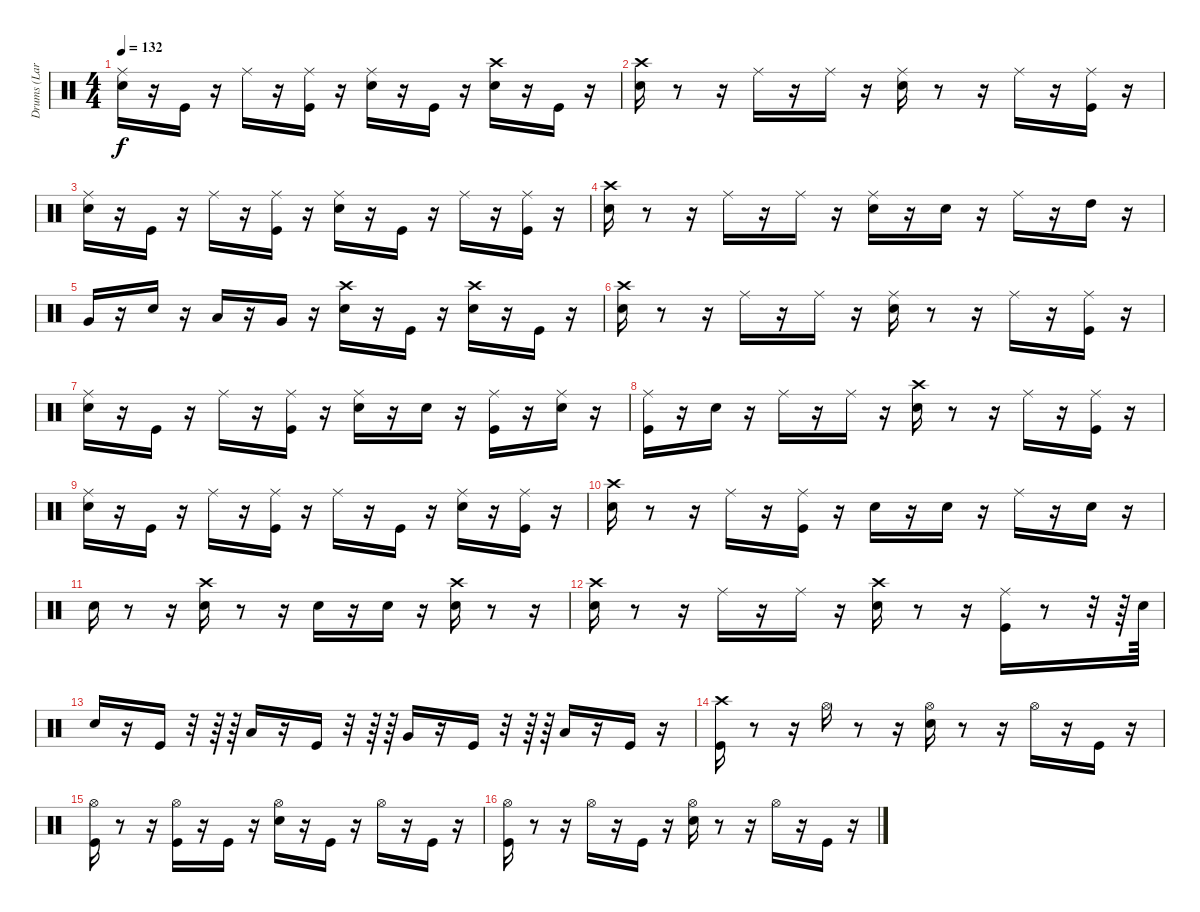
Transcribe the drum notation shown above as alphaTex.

\track ("Drums (Lars)" "Drums (Lar") {instrument percussion}
\staff {score}
\articulation defaults
\ts (4 4)
\tempo 132
\clef neutral
\ks c
("Ride (middle)" "Snare (hit) 2").16{dy f} r.16 "Kick (hit)".16 r.16 "Ride (middle)".16 r.16 ("Ride (middle)" "Kick (hit)").16 r.16 ("Ride (middle)" "Snare (hit) 2").16 r.16 "Kick (hit)".16 r.16 ("Snare (hit) 2" "Crash high (hit)").16 r.16 "Kick (hit)".16 r.16 |
("Crash high (hit)" "Snare (hit) 2").16 r.8 r.16 "Ride (middle)".16 r.16 "Ride (middle)".16 r.16 ("Ride (middle)" "Snare (hit) 2").16 r.8 r.16 "Ride (middle)".16 r.16 ("Ride (middle)" "Kick (hit)").16 r.16 |
("Ride (middle)" "Snare (hit) 2").16 r.16 "Kick (hit)".16 r.16 "Ride (middle)".16 r.16 ("Ride (middle)" "Kick (hit)").16 r.16 ("Ride (middle)" "Snare (hit) 2").16 r.16 "Kick (hit)".16 r.16 "Ride (middle)".16 r.16 ("Ride (middle)" "Kick (hit)").16 r.16 |
("Snare (hit) 2" "Crash high (hit)").16 r.8 r.16 "Ride (middle)".16 r.16 "Ride (middle)".16 r.16 ("Ride (middle)" "Snare (hit) 2").16 r.16 "Snare (hit) 2".16 r.16 "Ride (middle)".16 r.16 "High Tom (hit)".16 r.16 |
"Very Low Tom (hit)".16 r.16 "Electric Snare (hit)".16 r.16 "Low Tom (hit)".16 r.16 "Very Low Tom (hit)".16 r.16 ("Snare (hit) 2" "Crash high (hit)").16 r.16 "Kick (hit)".16 r.16 ("Snare (hit) 2" "Crash high (hit)").16 r.16 "Kick (hit)".16 r.16 |
("Snare (hit) 2" "Crash high (hit)").16 r.8 r.16 "Ride (middle)".16 r.16 "Ride (middle)".16 r.16 ("Ride (middle)" "Snare (hit) 2").16 r.8 r.16 "Ride (middle)".16 r.16 ("Ride (middle)" "Kick (hit)").16 r.16 |
("Ride (middle)" "Snare (hit) 2").16 r.16 "Kick (hit)".16 r.16 "Ride (middle)".16 r.16 ("Ride (middle)" "Kick (hit)").16 r.16 ("Ride (middle)" "Snare (hit) 2").16 r.16 "Snare (hit) 2".16 r.16 ("Ride (middle)" "Kick (hit)").16 r.16 ("Ride (middle)" "Snare (hit) 2").16 r.16 |
("Kick (hit)" "Ride (middle)").16 r.16 "Snare (hit) 2".16 r.16 "Ride (middle)".16 r.16 "Ride (middle)".16 r.16 ("Snare (hit) 2" "Crash high (hit)").16 r.8 r.16 "Ride (middle)".16 r.16 ("Ride (middle)" "Kick (hit)").16 r.16 |
("Ride (middle)" "Snare (hit) 2").16 r.16 "Kick (hit)".16 r.16 "Ride (middle)".16 r.16 ("Ride (middle)" "Kick (hit)").16 r.16 "Ride (middle)".16 r.16 "Kick (hit)".16 r.16 ("Ride (middle)" "Snare (hit) 2").16 r.16 ("Ride (middle)" "Kick (hit)").16 r.16 |
("Crash high (hit)" "Snare (hit) 2").16 r.8 r.16 "Ride (middle)".16 r.16 ("Ride (middle)" "Kick (hit)").16 r.16 "Snare (hit) 2".16 r.16 "Snare (hit) 2".16 r.16 "Ride (middle)".16 r.16 "Snare (hit) 2".16 r.16 |
"Snare (hit) 2".16 r.8 r.16 ("Snare (hit) 2" "Crash high (hit)").16 r.8 r.16 "Snare (hit) 2".16 r.16 "Snare (hit) 2".16 r.16 ("Snare (hit) 2" "Crash high (hit)").16 r.8 r.16 |
("Snare (hit) 2" "Crash high (hit)").16 r.8 r.16 "Ride (middle)".16 r.16 "Ride (middle)".16 r.16 ("Snare (hit) 2" "Crash high (hit)").16 r.8 r.16 ("Kick (hit)" "Ride (middle)").16 r.8 r.32 r.64 "Snare (hit) 2".64 |
"Snare (hit) 2".16 r.16 "Kick (hit)".16 r.32 r.64 r.64 "Low Tom (hit)".16 r.16 "Kick (hit)".16 r.32 r.64 r.64 "Very Low Tom (hit)".16 r.16 "Kick (hit)".16 r.32 r.64 r.64 "Low Floor Tom (hit)".16 r.16 "Kick (hit)".16 r.16 |
("Kick (hit)" "Crash high (hit)").16 r.8 r.16 "Hi-Hat (open)".16 r.8 r.16 ("Hi-Hat (open)" "Snare (hit) 2").16 r.8 r.16 "Hi-Hat (open)".16 r.16 "Kick (hit)".16 r.16 |
("Kick (hit)" "Hi-Hat (open)").16 r.8 r.16 ("Hi-Hat (open)" "Kick (hit)").16 r.16 "Kick (hit)".16 r.16 ("Hi-Hat (open)" "Snare (hit) 2").16 r.16 "Kick (hit)".16 r.16 "Hi-Hat (open)".16 r.16 "Kick (hit)".16 r.16 |
("Hi-Hat (open)" "Kick (hit)").16 r.8 r.16 "Hi-Hat (open)".16 r.16 "Kick (hit)".16 r.16 ("Hi-Hat (open)" "Snare (hit) 2").16 r.8 r.16 "Hi-Hat (open)".16 r.16 "Kick (hit)".16 r.16
